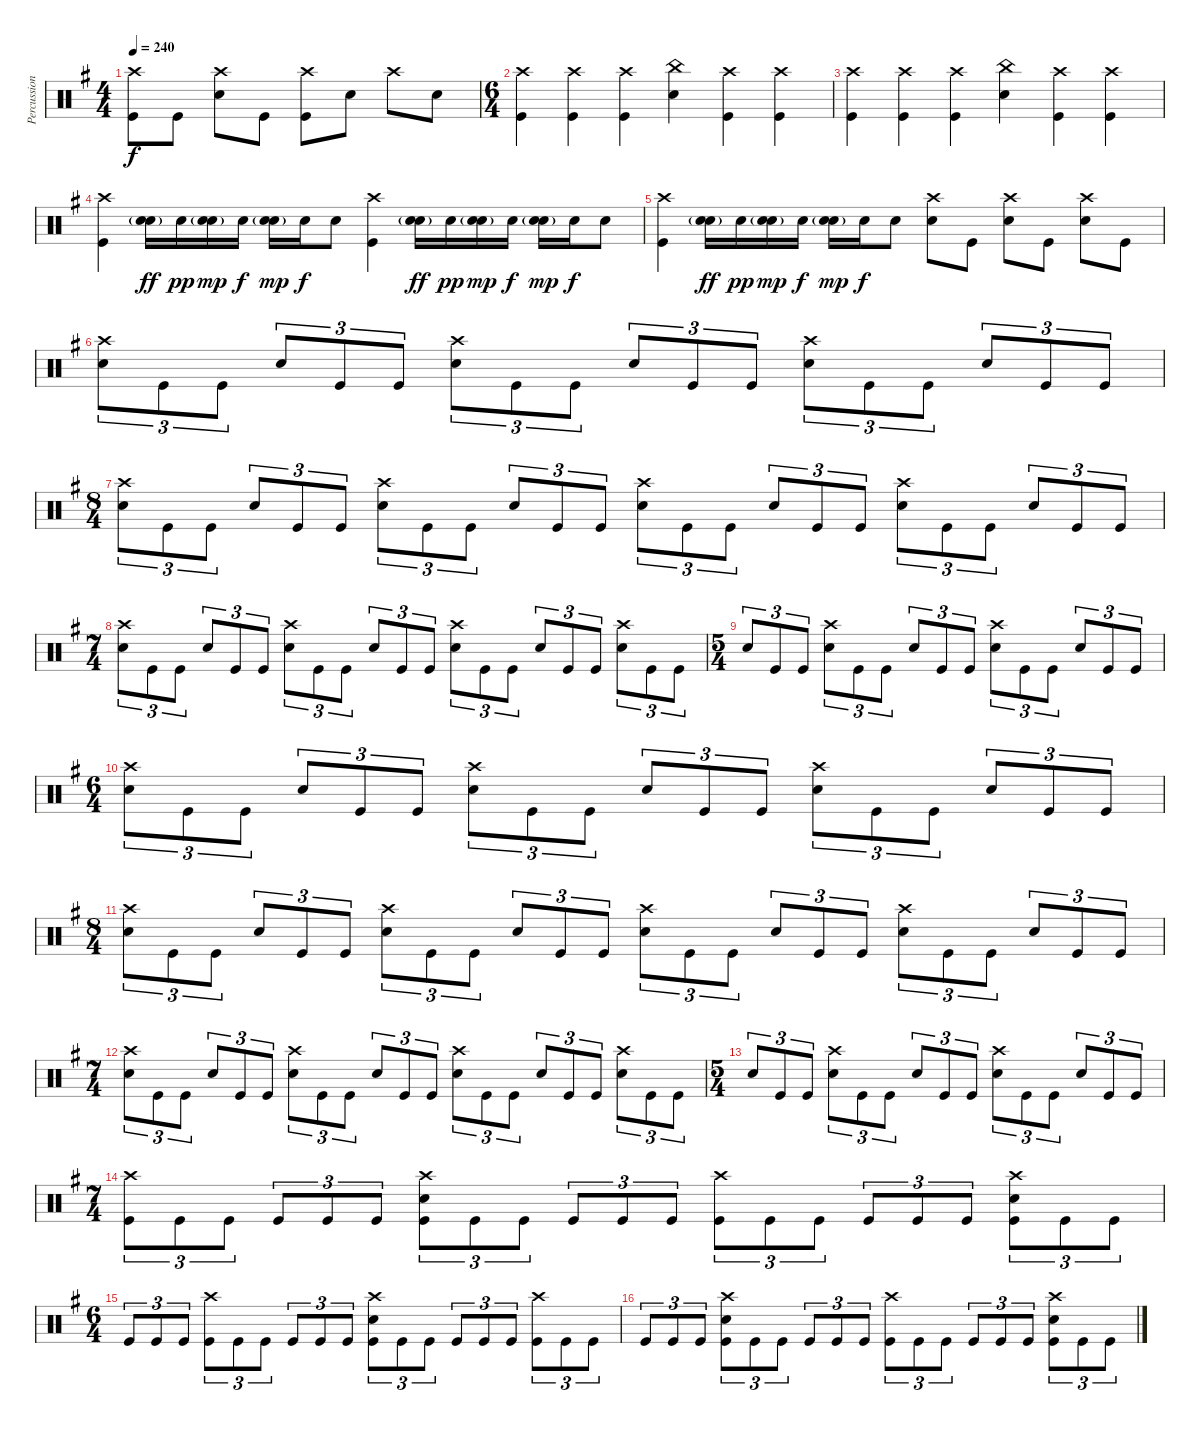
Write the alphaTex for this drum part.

\track ("Percussion" "Percussion") {instrument percussion}
\staff {score}
\articulation defaults
\ts (4 4)
\tempo 240
\clef neutral
\ks g
("Crash high (hit)" "Kick (hit)").8{dy f} "Kick (hit)".8 ("Crash high (hit)" "Electric Snare (hit)").8 "Kick (hit)".8 ("Crash high (hit)" "Kick (hit)").8 "Electric Snare (hit)".8 "Crash high (hit)".8 "Electric Snare (hit)".8 |
\ts (6 4)
("Crash high (hit)" "Kick (hit)").4 ("Crash high (hit)" "Kick (hit)").4 ("Crash high (hit)" "Kick (hit)").4 ("China (hit)" "Electric Snare (hit)").4 ("Crash high (hit)" "Kick (hit)").4 ("Crash high (hit)" "Kick (hit)").4 |
("Crash high (hit)" "Kick (hit)").4 ("Crash high (hit)" "Kick (hit)").4 ("Crash high (hit)" "Kick (hit)").4 ("China (hit)" "Electric Snare (hit)").4 ("Crash high (hit)" "Kick (hit)").4 ("Crash high (hit)" "Kick (hit)").4 |
("Crash high (hit)" "Kick (hit)").4 ("Snare (hit) 2"{g} "Electric Snare (hit)").16{dy ff} "Electric Snare (hit)".16{dy pp} ("Snare (hit) 2"{g} "Electric Snare (hit)").16{dy mp} "Electric Snare (hit)".16{dy f} ("Snare (hit) 2"{g} "Electric Snare (hit)").16{dy mp} "Electric Snare (hit)".16{dy f} "Electric Snare (hit)".8 ("Crash high (hit)" "Kick (hit)").4 ("Snare (hit) 2"{g} "Electric Snare (hit)").16{dy ff} "Electric Snare (hit)".16{dy pp} ("Snare (hit) 2"{g} "Electric Snare (hit)").16{dy mp} "Electric Snare (hit)".16{dy f} ("Snare (hit) 2"{g} "Electric Snare (hit)").16{dy mp} "Electric Snare (hit)".16{dy f} "Electric Snare (hit)".8 |
("Crash high (hit)" "Kick (hit)").4 ("Snare (hit) 2"{g} "Electric Snare (hit)").16{dy ff} "Electric Snare (hit)".16{dy pp} ("Snare (hit) 2"{g} "Electric Snare (hit)").16{dy mp} "Electric Snare (hit)".16{dy f} ("Snare (hit) 2"{g} "Electric Snare (hit)").16{dy mp} "Electric Snare (hit)".16{dy f} "Electric Snare (hit)".8 ("Crash high (hit)" "Electric Snare (hit)").8 "Kick (hit)".8 ("Crash high (hit)" "Electric Snare (hit)").8 "Kick (hit)".8 ("Crash high (hit)" "Electric Snare (hit)").8 "Kick (hit)".8 |
("Crash high (hit)" "Electric Snare (hit)").8{tu (3 2)} "Kick (hit)".8{tu (3 2)} "Kick (hit)".8{tu (3 2)} "Electric Snare (hit)".8{tu (3 2)} "Kick (hit)".8{tu (3 2)} "Kick (hit)".8{tu (3 2)} ("Crash high (hit)" "Electric Snare (hit)").8{tu (3 2)} "Kick (hit)".8{tu (3 2)} "Kick (hit)".8{tu (3 2)} "Electric Snare (hit)".8{tu (3 2)} "Kick (hit)".8{tu (3 2)} "Kick (hit)".8{tu (3 2)} ("Crash high (hit)" "Electric Snare (hit)").8{tu (3 2)} "Kick (hit)".8{tu (3 2)} "Kick (hit)".8{tu (3 2)} "Electric Snare (hit)".8{tu (3 2)} "Kick (hit)".8{tu (3 2)} "Kick (hit)".8{tu (3 2)} |
\ts (8 4)
("Crash high (hit)" "Electric Snare (hit)").8{tu (3 2)} "Kick (hit)".8{tu (3 2)} "Kick (hit)".8{tu (3 2)} "Electric Snare (hit)".8{tu (3 2)} "Kick (hit)".8{tu (3 2)} "Kick (hit)".8{tu (3 2)} ("Crash high (hit)" "Electric Snare (hit)").8{tu (3 2)} "Kick (hit)".8{tu (3 2)} "Kick (hit)".8{tu (3 2)} "Electric Snare (hit)".8{tu (3 2)} "Kick (hit)".8{tu (3 2)} "Kick (hit)".8{tu (3 2)} ("Crash high (hit)" "Electric Snare (hit)").8{tu (3 2)} "Kick (hit)".8{tu (3 2)} "Kick (hit)".8{tu (3 2)} "Electric Snare (hit)".8{tu (3 2)} "Kick (hit)".8{tu (3 2)} "Kick (hit)".8{tu (3 2)} ("Crash high (hit)" "Electric Snare (hit)").8{tu (3 2)} "Kick (hit)".8{tu (3 2)} "Kick (hit)".8{tu (3 2)} "Electric Snare (hit)".8{tu (3 2)} "Kick (hit)".8{tu (3 2)} "Kick (hit)".8{tu (3 2)} |
\ts (7 4)
("Crash high (hit)" "Electric Snare (hit)").8{tu (3 2)} "Kick (hit)".8{tu (3 2)} "Kick (hit)".8{tu (3 2)} "Electric Snare (hit)".8{tu (3 2)} "Kick (hit)".8{tu (3 2)} "Kick (hit)".8{tu (3 2)} ("Crash high (hit)" "Electric Snare (hit)").8{tu (3 2)} "Kick (hit)".8{tu (3 2)} "Kick (hit)".8{tu (3 2)} "Electric Snare (hit)".8{tu (3 2)} "Kick (hit)".8{tu (3 2)} "Kick (hit)".8{tu (3 2)} ("Crash high (hit)" "Electric Snare (hit)").8{tu (3 2)} "Kick (hit)".8{tu (3 2)} "Kick (hit)".8{tu (3 2)} "Electric Snare (hit)".8{tu (3 2)} "Kick (hit)".8{tu (3 2)} "Kick (hit)".8{tu (3 2)} ("Crash high (hit)" "Electric Snare (hit)").8{tu (3 2)} "Kick (hit)".8{tu (3 2)} "Kick (hit)".8{tu (3 2)} |
\ts (5 4)
"Electric Snare (hit)".8{tu (3 2)} "Kick (hit)".8{tu (3 2)} "Kick (hit)".8{tu (3 2)} ("Crash high (hit)" "Electric Snare (hit)").8{tu (3 2)} "Kick (hit)".8{tu (3 2)} "Kick (hit)".8{tu (3 2)} "Electric Snare (hit)".8{tu (3 2)} "Kick (hit)".8{tu (3 2)} "Kick (hit)".8{tu (3 2)} ("Crash high (hit)" "Electric Snare (hit)").8{tu (3 2)} "Kick (hit)".8{tu (3 2)} "Kick (hit)".8{tu (3 2)} "Electric Snare (hit)".8{tu (3 2)} "Kick (hit)".8{tu (3 2)} "Kick (hit)".8{tu (3 2)} |
\ts (6 4)
("Crash high (hit)" "Electric Snare (hit)").8{tu (3 2)} "Kick (hit)".8{tu (3 2)} "Kick (hit)".8{tu (3 2)} "Electric Snare (hit)".8{tu (3 2)} "Kick (hit)".8{tu (3 2)} "Kick (hit)".8{tu (3 2)} ("Crash high (hit)" "Electric Snare (hit)").8{tu (3 2)} "Kick (hit)".8{tu (3 2)} "Kick (hit)".8{tu (3 2)} "Electric Snare (hit)".8{tu (3 2)} "Kick (hit)".8{tu (3 2)} "Kick (hit)".8{tu (3 2)} ("Crash high (hit)" "Electric Snare (hit)").8{tu (3 2)} "Kick (hit)".8{tu (3 2)} "Kick (hit)".8{tu (3 2)} "Electric Snare (hit)".8{tu (3 2)} "Kick (hit)".8{tu (3 2)} "Kick (hit)".8{tu (3 2)} |
\ts (8 4)
("Crash high (hit)" "Electric Snare (hit)").8{tu (3 2)} "Kick (hit)".8{tu (3 2)} "Kick (hit)".8{tu (3 2)} "Electric Snare (hit)".8{tu (3 2)} "Kick (hit)".8{tu (3 2)} "Kick (hit)".8{tu (3 2)} ("Crash high (hit)" "Electric Snare (hit)").8{tu (3 2)} "Kick (hit)".8{tu (3 2)} "Kick (hit)".8{tu (3 2)} "Electric Snare (hit)".8{tu (3 2)} "Kick (hit)".8{tu (3 2)} "Kick (hit)".8{tu (3 2)} ("Crash high (hit)" "Electric Snare (hit)").8{tu (3 2)} "Kick (hit)".8{tu (3 2)} "Kick (hit)".8{tu (3 2)} "Electric Snare (hit)".8{tu (3 2)} "Kick (hit)".8{tu (3 2)} "Kick (hit)".8{tu (3 2)} ("Crash high (hit)" "Electric Snare (hit)").8{tu (3 2)} "Kick (hit)".8{tu (3 2)} "Kick (hit)".8{tu (3 2)} "Electric Snare (hit)".8{tu (3 2)} "Kick (hit)".8{tu (3 2)} "Kick (hit)".8{tu (3 2)} |
\ts (7 4)
("Crash high (hit)" "Electric Snare (hit)").8{tu (3 2)} "Kick (hit)".8{tu (3 2)} "Kick (hit)".8{tu (3 2)} "Electric Snare (hit)".8{tu (3 2)} "Kick (hit)".8{tu (3 2)} "Kick (hit)".8{tu (3 2)} ("Crash high (hit)" "Electric Snare (hit)").8{tu (3 2)} "Kick (hit)".8{tu (3 2)} "Kick (hit)".8{tu (3 2)} "Electric Snare (hit)".8{tu (3 2)} "Kick (hit)".8{tu (3 2)} "Kick (hit)".8{tu (3 2)} ("Crash high (hit)" "Electric Snare (hit)").8{tu (3 2)} "Kick (hit)".8{tu (3 2)} "Kick (hit)".8{tu (3 2)} "Electric Snare (hit)".8{tu (3 2)} "Kick (hit)".8{tu (3 2)} "Kick (hit)".8{tu (3 2)} ("Crash high (hit)" "Electric Snare (hit)").8{tu (3 2)} "Kick (hit)".8{tu (3 2)} "Kick (hit)".8{tu (3 2)} |
\ts (5 4)
"Electric Snare (hit)".8{tu (3 2)} "Kick (hit)".8{tu (3 2)} "Kick (hit)".8{tu (3 2)} ("Crash high (hit)" "Electric Snare (hit)").8{tu (3 2)} "Kick (hit)".8{tu (3 2)} "Kick (hit)".8{tu (3 2)} "Electric Snare (hit)".8{tu (3 2)} "Kick (hit)".8{tu (3 2)} "Kick (hit)".8{tu (3 2)} ("Crash high (hit)" "Electric Snare (hit)").8{tu (3 2)} "Kick (hit)".8{tu (3 2)} "Kick (hit)".8{tu (3 2)} "Electric Snare (hit)".8{tu (3 2)} "Kick (hit)".8{tu (3 2)} "Kick (hit)".8{tu (3 2)} |
\ts (7 4)
("Crash high (hit)" "Kick (hit)").8{tu (3 2)} "Kick (hit)".8{tu (3 2)} "Kick (hit)".8{tu (3 2)} "Kick (hit)".8{tu (3 2)} "Kick (hit)".8{tu (3 2)} "Kick (hit)".8{tu (3 2)} ("Crash high (hit)" "Electric Snare (hit)" "Kick (hit)").8{tu (3 2)} "Kick (hit)".8{tu (3 2)} "Kick (hit)".8{tu (3 2)} "Kick (hit)".8{tu (3 2)} "Kick (hit)".8{tu (3 2)} "Kick (hit)".8{tu (3 2)} ("Crash high (hit)" "Kick (hit)").8{tu (3 2)} "Kick (hit)".8{tu (3 2)} "Kick (hit)".8{tu (3 2)} "Kick (hit)".8{tu (3 2)} "Kick (hit)".8{tu (3 2)} "Kick (hit)".8{tu (3 2)} ("Crash high (hit)" "Electric Snare (hit)" "Kick (hit)").8{tu (3 2)} "Kick (hit)".8{tu (3 2)} "Kick (hit)".8{tu (3 2)} |
\ts (6 4)
"Kick (hit)".8{tu (3 2)} "Kick (hit)".8{tu (3 2)} "Kick (hit)".8{tu (3 2)} ("Crash high (hit)" "Kick (hit)").8{tu (3 2)} "Kick (hit)".8{tu (3 2)} "Kick (hit)".8{tu (3 2)} "Kick (hit)".8{tu (3 2)} "Kick (hit)".8{tu (3 2)} "Kick (hit)".8{tu (3 2)} ("Crash high (hit)" "Electric Snare (hit)" "Kick (hit)").8{tu (3 2)} "Kick (hit)".8{tu (3 2)} "Kick (hit)".8{tu (3 2)} "Kick (hit)".8{tu (3 2)} "Kick (hit)".8{tu (3 2)} "Kick (hit)".8{tu (3 2)} ("Crash high (hit)" "Kick (hit)").8{tu (3 2)} "Kick (hit)".8{tu (3 2)} "Kick (hit)".8{tu (3 2)} |
"Kick (hit)".8{tu (3 2)} "Kick (hit)".8{tu (3 2)} "Kick (hit)".8{tu (3 2)} ("Crash high (hit)" "Electric Snare (hit)" "Kick (hit)").8{tu (3 2)} "Kick (hit)".8{tu (3 2)} "Kick (hit)".8{tu (3 2)} "Kick (hit)".8{tu (3 2)} "Kick (hit)".8{tu (3 2)} "Kick (hit)".8{tu (3 2)} ("Crash high (hit)" "Kick (hit)").8{tu (3 2)} "Kick (hit)".8{tu (3 2)} "Kick (hit)".8{tu (3 2)} "Kick (hit)".8{tu (3 2)} "Kick (hit)".8{tu (3 2)} "Kick (hit)".8{tu (3 2)} ("Crash high (hit)" "Electric Snare (hit)" "Kick (hit)").8{tu (3 2)} "Kick (hit)".8{tu (3 2)} "Kick (hit)".8{tu (3 2)}
